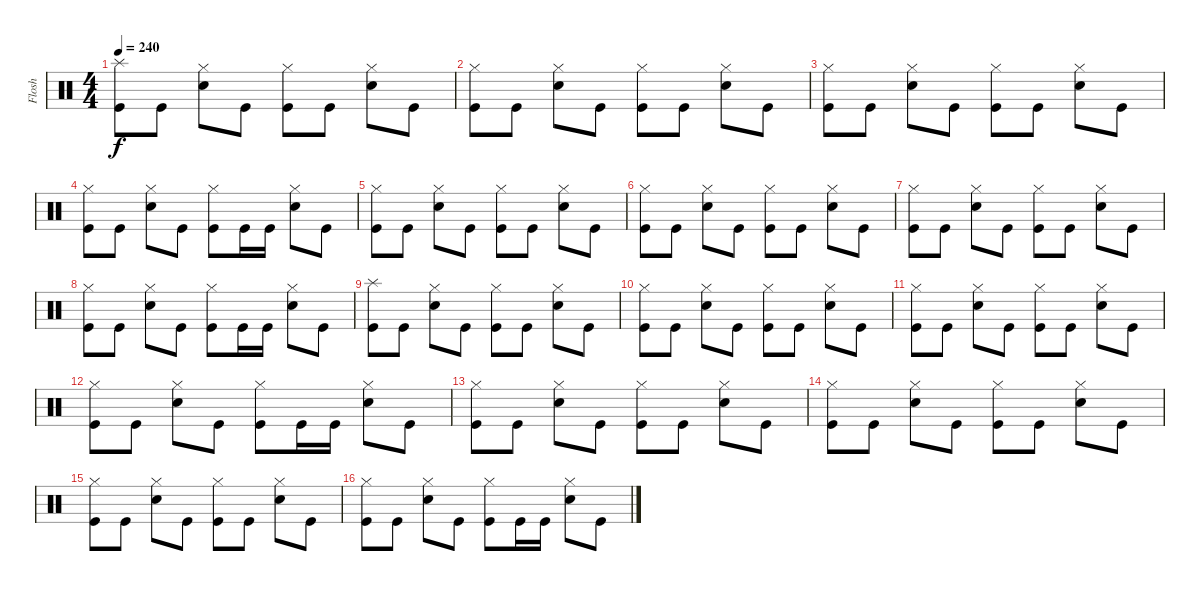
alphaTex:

\track ("Flosh" "Flosh") {instrument percussion}
\staff {score}
\articulation defaults
\ts (4 4)
\tempo 240
\clef neutral
\ks c
("Splash (hit)" "Kick (hit)").8{dy f} "Kick (hit)".8 ("Hi-Hat (closed)" "Snare (hit) 2").8 "Kick (hit)".8 ("Hi-Hat (closed)" "Kick (hit)").8 "Kick (hit)".8 ("Hi-Hat (closed)" "Snare (hit) 2").8 "Kick (hit)".8 |
("Hi-Hat (closed)" "Kick (hit)").8 "Kick (hit)".8 ("Hi-Hat (closed)" "Snare (hit) 2").8 "Kick (hit)".8 ("Hi-Hat (closed)" "Kick (hit)").8 "Kick (hit)".8 ("Hi-Hat (closed)" "Snare (hit) 2").8 "Kick (hit)".8 |
("Hi-Hat (closed)" "Kick (hit)").8 "Kick (hit)".8 ("Hi-Hat (closed)" "Snare (hit) 2").8 "Kick (hit)".8 ("Hi-Hat (closed)" "Kick (hit)").8 "Kick (hit)".8 ("Hi-Hat (closed)" "Snare (hit) 2").8 "Kick (hit)".8 |
("Hi-Hat (closed)" "Kick (hit)").8 "Kick (hit)".8 ("Hi-Hat (closed)" "Snare (hit) 2").8 "Kick (hit)".8 ("Hi-Hat (closed)" "Kick (hit)").8 "Kick (hit)".16 "Kick (hit)".16 ("Hi-Hat (closed)" "Snare (hit) 2").8 "Kick (hit)".8 |
("Hi-Hat (closed)" "Kick (hit)").8 "Kick (hit)".8 ("Hi-Hat (closed)" "Snare (hit) 2").8 "Kick (hit)".8 ("Hi-Hat (closed)" "Kick (hit)").8 "Kick (hit)".8 ("Hi-Hat (closed)" "Snare (hit) 2").8 "Kick (hit)".8 |
("Hi-Hat (closed)" "Kick (hit)").8 "Kick (hit)".8 ("Hi-Hat (closed)" "Snare (hit) 2").8 "Kick (hit)".8 ("Hi-Hat (closed)" "Kick (hit)").8 "Kick (hit)".8 ("Hi-Hat (closed)" "Snare (hit) 2").8 "Kick (hit)".8 |
("Hi-Hat (closed)" "Kick (hit)").8 "Kick (hit)".8 ("Hi-Hat (closed)" "Snare (hit) 2").8 "Kick (hit)".8 ("Hi-Hat (closed)" "Kick (hit)").8 "Kick (hit)".8 ("Hi-Hat (closed)" "Snare (hit) 2").8 "Kick (hit)".8 |
("Hi-Hat (closed)" "Kick (hit)").8 "Kick (hit)".8 ("Hi-Hat (closed)" "Snare (hit) 2").8 "Kick (hit)".8 ("Hi-Hat (closed)" "Kick (hit)").8 "Kick (hit)".16 "Kick (hit)".16 ("Hi-Hat (closed)" "Snare (hit) 2").8 "Kick (hit)".8 |
("Splash (hit)" "Kick (hit)").8 "Kick (hit)".8 ("Hi-Hat (closed)" "Snare (hit) 2").8 "Kick (hit)".8 ("Hi-Hat (closed)" "Kick (hit)").8 "Kick (hit)".8 ("Hi-Hat (closed)" "Snare (hit) 2").8 "Kick (hit)".8 |
("Hi-Hat (closed)" "Kick (hit)").8 "Kick (hit)".8 ("Hi-Hat (closed)" "Snare (hit) 2").8 "Kick (hit)".8 ("Hi-Hat (closed)" "Kick (hit)").8 "Kick (hit)".8 ("Hi-Hat (closed)" "Snare (hit) 2").8 "Kick (hit)".8 |
("Hi-Hat (closed)" "Kick (hit)").8 "Kick (hit)".8 ("Hi-Hat (closed)" "Snare (hit) 2").8 "Kick (hit)".8 ("Hi-Hat (closed)" "Kick (hit)").8 "Kick (hit)".8 ("Hi-Hat (closed)" "Snare (hit) 2").8 "Kick (hit)".8 |
("Hi-Hat (closed)" "Kick (hit)").8 "Kick (hit)".8 ("Hi-Hat (closed)" "Snare (hit) 2").8 "Kick (hit)".8 ("Hi-Hat (closed)" "Kick (hit)").8 "Kick (hit)".16 "Kick (hit)".16 ("Hi-Hat (closed)" "Snare (hit) 2").8 "Kick (hit)".8 |
("Hi-Hat (closed)" "Kick (hit)").8 "Kick (hit)".8 ("Hi-Hat (closed)" "Snare (hit) 2").8 "Kick (hit)".8 ("Hi-Hat (closed)" "Kick (hit)").8 "Kick (hit)".8 ("Hi-Hat (closed)" "Snare (hit) 2").8 "Kick (hit)".8 |
("Hi-Hat (closed)" "Kick (hit)").8 "Kick (hit)".8 ("Hi-Hat (closed)" "Snare (hit) 2").8 "Kick (hit)".8 ("Hi-Hat (closed)" "Kick (hit)").8 "Kick (hit)".8 ("Hi-Hat (closed)" "Snare (hit) 2").8 "Kick (hit)".8 |
("Hi-Hat (closed)" "Kick (hit)").8 "Kick (hit)".8 ("Hi-Hat (closed)" "Snare (hit) 2").8 "Kick (hit)".8 ("Hi-Hat (closed)" "Kick (hit)").8 "Kick (hit)".8 ("Hi-Hat (closed)" "Snare (hit) 2").8 "Kick (hit)".8 |
("Hi-Hat (closed)" "Kick (hit)").8 "Kick (hit)".8 ("Hi-Hat (closed)" "Snare (hit) 2").8 "Kick (hit)".8 ("Hi-Hat (closed)" "Kick (hit)").8 "Kick (hit)".16 "Kick (hit)".16 ("Hi-Hat (closed)" "Snare (hit) 2").8 "Kick (hit)".8
